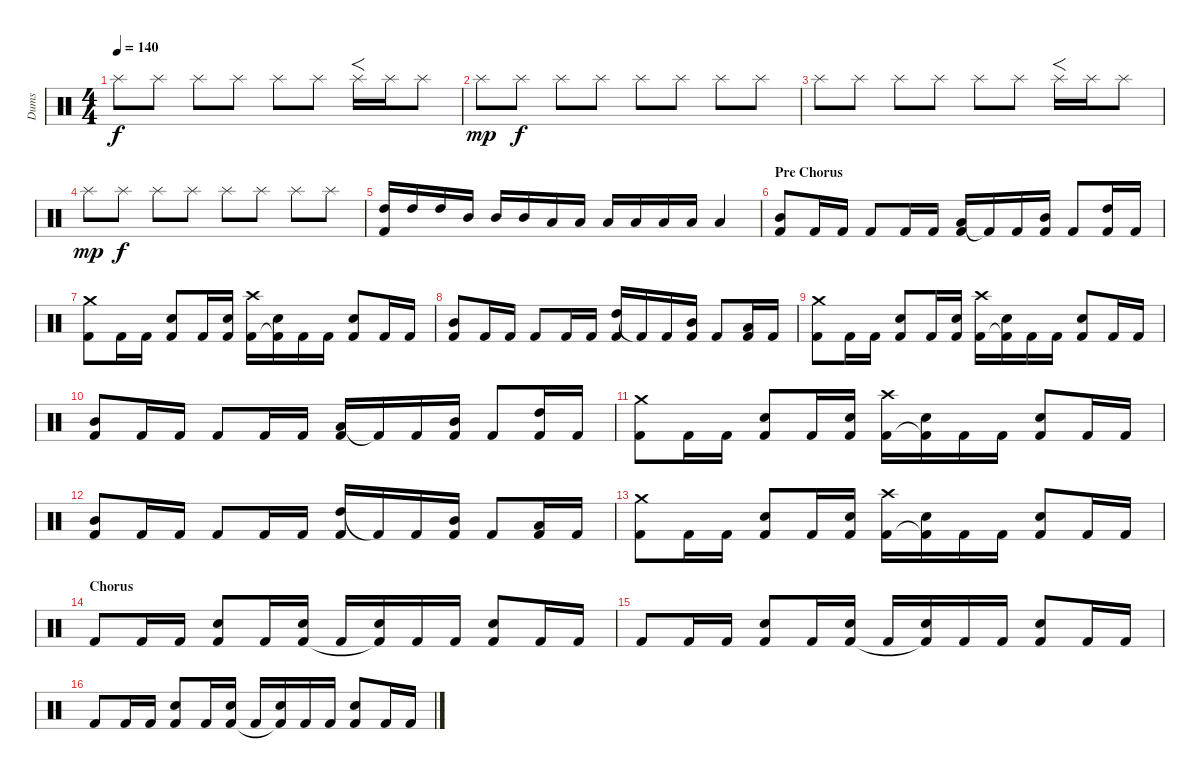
\track ("Dums" "Dums") {instrument percussion}
\staff {score}
\articulation defaults
\ts (4 4)
\tempo 140
\clef neutral
\ks c "Splash (hit)".8{dy f} "Splash (hit)".8 "Splash (hit)".8 "Splash (hit)".8 "Splash (hit)".8 "Splash (hit)".8 "Splash (hit)".16{f} "Splash (hit)".16 "Splash (hit)".8
|
"Splash (hit)".8{dy mp} "Splash (hit)".8{dy f} "Splash (hit)".8 "Splash (hit)".8 "Splash (hit)".8 "Splash (hit)".8 "Splash (hit)".8 "Splash (hit)".8 |
"Splash (hit)".8 "Splash (hit)".8 "Splash (hit)".8 "Splash (hit)".8 "Splash (hit)".8 "Splash (hit)".8 "Splash (hit)".16{f} "Splash (hit)".16 "Splash (hit)".8 |
"Splash (hit)".8{dy mp} "Splash (hit)".8{dy f} "Splash (hit)".8 "Splash (hit)".8 "Splash (hit)".8 "Splash (hit)".8 "Splash (hit)".8 "Splash (hit)".8 |
("High Tom (hit)" "Kick (hit) 2").16 "High Tom (hit)".16 "High Tom (hit)".16 "Mid Tom (hit)".16 "Mid Tom (hit)".16 "Mid Tom (hit)".16 "Low Tom (hit)".16 "Low Tom (hit)".16 "Low Tom (hit)".16 "Low Tom (hit)".16 "Low Tom (hit)".16 "Low Tom (hit)".16 "Low Tom (hit)".4 |
\section ("" "Pre Chorus")
("Mid Tom (hit)" "Kick (hit) 2").8 "Kick (hit) 2".16 "Kick (hit) 2".16 "Kick (hit) 2".8 "Kick (hit) 2".16 "Kick (hit) 2".16 ("Low Tom (hit)" "Kick (hit) 2").16 "Kick (hit) 2"{t}.16 "Kick (hit) 2".16 ("Mid Tom (hit)" "Kick (hit) 2").16 "Kick (hit) 2".8 ("High Tom (hit)" "Kick (hit) 2").16 "Kick (hit) 2".16 |
("Crash medium (hit)" "Kick (hit) 2").8 "Kick (hit) 2".16 "Kick (hit) 2".16 ("Snare (hit) 2" "Kick (hit) 2").8 "Kick (hit) 2".16 ("Snare (hit) 2" "Kick (hit) 2").16 ("Crash high (hit)" "Kick (hit) 2").16 ("Snare (hit) 2" "Kick (hit) 2"{t}).16 "Kick (hit) 2".16 "Kick (hit) 2".16 ("Snare (hit) 2" "Kick (hit) 2").8 "Kick (hit) 2".16 "Kick (hit) 2".16 |
("Mid Tom (hit)" "Kick (hit) 2").8 "Kick (hit) 2".16 "Kick (hit) 2".16 "Kick (hit) 2".8 "Kick (hit) 2".16 "Kick (hit) 2".16 ("High Tom (hit)" "Kick (hit) 2").16 "Kick (hit) 2"{t}.16 "Kick (hit) 2".16 ("Mid Tom (hit)" "Kick (hit) 2").16 "Kick (hit) 2".8 ("Low Tom (hit)" "Kick (hit) 2").16 "Kick (hit) 2".16 |
("Crash medium (hit)" "Kick (hit) 2").8 "Kick (hit) 2".16 "Kick (hit) 2".16 ("Snare (hit) 2" "Kick (hit) 2").8 "Kick (hit) 2".16 ("Snare (hit) 2" "Kick (hit) 2").16 ("Crash high (hit)" "Kick (hit) 2").16 ("Snare (hit) 2" "Kick (hit) 2"{t}).16 "Kick (hit) 2".16 "Kick (hit) 2".16 ("Snare (hit) 2" "Kick (hit) 2").8 "Kick (hit) 2".16 "Kick (hit) 2".16 |
("Mid Tom (hit)" "Kick (hit) 2").8 "Kick (hit) 2".16 "Kick (hit) 2".16 "Kick (hit) 2".8 "Kick (hit) 2".16 "Kick (hit) 2".16 ("Low Tom (hit)" "Kick (hit) 2").16 "Kick (hit) 2"{t}.16 "Kick (hit) 2".16 ("Mid Tom (hit)" "Kick (hit) 2").16 "Kick (hit) 2".8 ("High Tom (hit)" "Kick (hit) 2").16 "Kick (hit) 2".16 |
("Crash medium (hit)" "Kick (hit) 2").8 "Kick (hit) 2".16 "Kick (hit) 2".16 ("Snare (hit) 2" "Kick (hit) 2").8 "Kick (hit) 2".16 ("Snare (hit) 2" "Kick (hit) 2").16 ("Crash high (hit)" "Kick (hit) 2").16 ("Snare (hit) 2" "Kick (hit) 2"{t}).16 "Kick (hit) 2".16 "Kick (hit) 2".16 ("Snare (hit) 2" "Kick (hit) 2").8 "Kick (hit) 2".16 "Kick (hit) 2".16 |
("Mid Tom (hit)" "Kick (hit) 2").8 "Kick (hit) 2".16 "Kick (hit) 2".16 "Kick (hit) 2".8 "Kick (hit) 2".16 "Kick (hit) 2".16 ("High Tom (hit)" "Kick (hit) 2").16 "Kick (hit) 2"{t}.16 "Kick (hit) 2".16 ("Mid Tom (hit)" "Kick (hit) 2").16 "Kick (hit) 2".8 ("Low Tom (hit)" "Kick (hit) 2").16 "Kick (hit) 2".16 |
("Crash medium (hit)" "Kick (hit) 2").8 "Kick (hit) 2".16 "Kick (hit) 2".16 ("Snare (hit) 2" "Kick (hit) 2").8 "Kick (hit) 2".16 ("Snare (hit) 2" "Kick (hit) 2").16 ("Crash high (hit)" "Kick (hit) 2").16 ("Snare (hit) 2" "Kick (hit) 2"{t}).16 "Kick (hit) 2".16 "Kick (hit) 2".16 ("Snare (hit) 2" "Kick (hit) 2").8 "Kick (hit) 2".16 "Kick (hit) 2".16 |
\section ("" "Chorus")
"Kick (hit) 2".8 "Kick (hit) 2".16 "Kick (hit) 2".16 ("Snare (hit) 2" "Kick (hit) 2").8 "Kick (hit) 2".16 ("Snare (hit) 2" "Kick (hit) 2").16 "Kick (hit) 2".16 ("Snare (hit) 2" "Kick (hit) 2"{t}).16 "Kick (hit) 2".16 "Kick (hit) 2".16 ("Snare (hit) 2" "Kick (hit) 2").8 "Kick (hit) 2".16 "Kick (hit) 2".16 |
"Kick (hit) 2".8 "Kick (hit) 2".16 "Kick (hit) 2".16 ("Snare (hit) 2" "Kick (hit) 2").8 "Kick (hit) 2".16 ("Snare (hit) 2" "Kick (hit) 2").16 "Kick (hit) 2".16 ("Snare (hit) 2" "Kick (hit) 2"{t}).16 "Kick (hit) 2".16 "Kick (hit) 2".16 ("Snare (hit) 2" "Kick (hit) 2").8 "Kick (hit) 2".16 "Kick (hit) 2".16 |
"Kick (hit) 2".8 "Kick (hit) 2".16 "Kick (hit) 2".16 ("Snare (hit) 2" "Kick (hit) 2").8 "Kick (hit) 2".16 ("Snare (hit) 2" "Kick (hit) 2").16 "Kick (hit) 2".16 ("Snare (hit) 2" "Kick (hit) 2"{t}).16 "Kick (hit) 2".16 "Kick (hit) 2".16 ("Snare (hit) 2" "Kick (hit) 2").8 "Kick (hit) 2".16 "Kick (hit) 2".16
